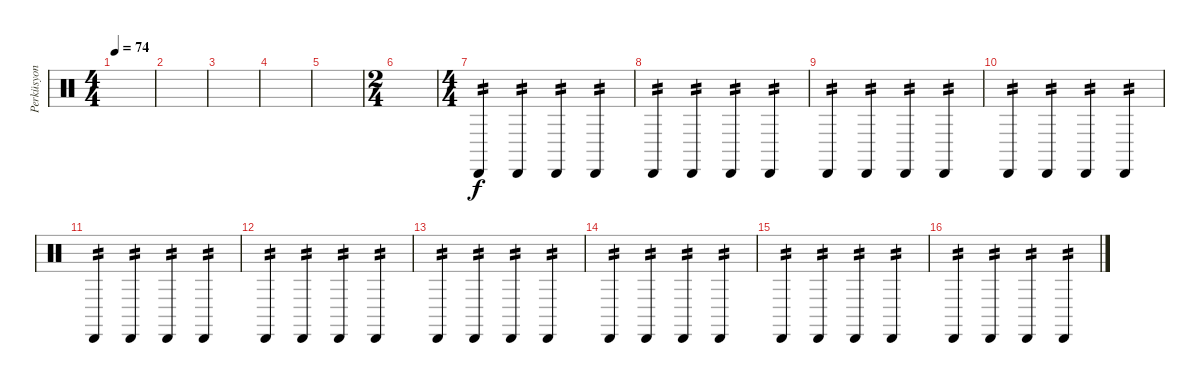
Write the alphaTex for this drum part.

\track ("Perküsyon" "Perküsyon") {instrument percussion}
\staff {score}
\articulation defaults
\ts (4 4)
\tempo 74
\clef neutral
\ks c
|
|
|
|
|
\ts (2 4)
|
\ts (4 4)
"Cabasa (hit)".4{tp 2} "Cabasa (hit)".4{tp 2} "Cabasa (hit)".4{tp 2} "Cabasa (hit)".4{tp 2} |
"Cabasa (hit)".4{tp 2} "Cabasa (hit)".4{tp 2} "Cabasa (hit)".4{tp 2} "Cabasa (hit)".4{tp 2} |
"Cabasa (hit)".4{tp 2} "Cabasa (hit)".4{tp 2} "Cabasa (hit)".4{tp 2} "Cabasa (hit)".4{tp 2} |
"Cabasa (hit)".4{tp 2} "Cabasa (hit)".4{tp 2} "Cabasa (hit)".4{tp 2} "Cabasa (hit)".4{tp 2} |
"Cabasa (hit)".4{tp 2} "Cabasa (hit)".4{tp 2} "Cabasa (hit)".4{tp 2} "Cabasa (hit)".4{tp 2} |
"Cabasa (hit)".4{tp 2} "Cabasa (hit)".4{tp 2} "Cabasa (hit)".4{tp 2} "Cabasa (hit)".4{tp 2} |
"Cabasa (hit)".4{tp 2} "Cabasa (hit)".4{tp 2} "Cabasa (hit)".4{tp 2} "Cabasa (hit)".4{tp 2} |
"Cabasa (hit)".4{tp 2} "Cabasa (hit)".4{tp 2} "Cabasa (hit)".4{tp 2} "Cabasa (hit)".4{tp 2} |
"Cabasa (hit)".4{tp 2} "Cabasa (hit)".4{tp 2} "Cabasa (hit)".4{tp 2} "Cabasa (hit)".4{tp 2} |
"Cabasa (hit)".4{tp 2} "Cabasa (hit)".4{tp 2} "Cabasa (hit)".4{tp 2} "Cabasa (hit)".4{tp 2}
